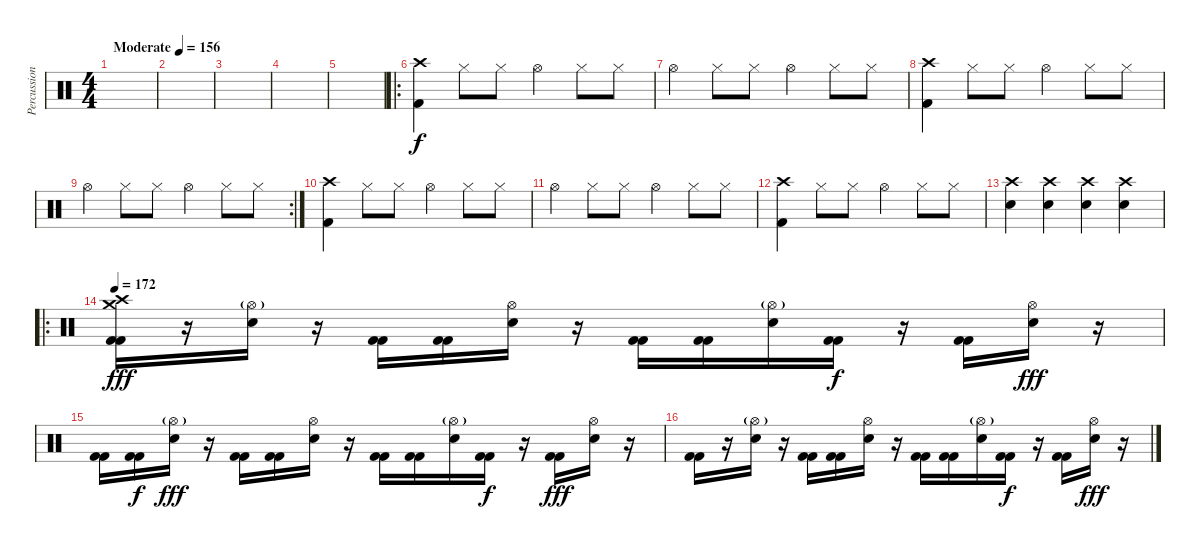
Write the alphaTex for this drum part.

\track ("Percussion" "Percussion") {instrument percussion}
\staff {score}
\articulation defaults
\ts (4 4)
\tempo (156 "Moderate")
\clef neutral
\ks c
|
|
|
|
|
\ro
("Kick (hit) 2" "Crash high (hit)").4 "Hi-Hat (closed)".8 "Hi-Hat (closed)".8 "Hi-Hat (open)".4 "Hi-Hat (closed)".8 "Hi-Hat (closed)".8 |
"Hi-Hat (open)".4 "Hi-Hat (closed)".8 "Hi-Hat (closed)".8 "Hi-Hat (open)".4 "Hi-Hat (closed)".8 "Hi-Hat (closed)".8 |
("Kick (hit) 2" "Crash high (hit)").4 "Hi-Hat (closed)".8 "Hi-Hat (closed)".8 "Hi-Hat (open)".4 "Hi-Hat (closed)".8 "Hi-Hat (closed)".8 |
\rc 2 "Hi-Hat (open)".4 "Hi-Hat (closed)".8 "Hi-Hat (closed)".8 "Hi-Hat (open)".4 "Hi-Hat (closed)".8 "Hi-Hat (closed)".8
|
("Kick (hit) 2" "Crash high (hit)").4 "Hi-Hat (closed)".8 "Hi-Hat (closed)".8 "Hi-Hat (open)".4 "Hi-Hat (closed)".8 "Hi-Hat (closed)".8 |
"Hi-Hat (open)".4 "Hi-Hat (closed)".8 "Hi-Hat (closed)".8 "Hi-Hat (open)".4 "Hi-Hat (closed)".8 "Hi-Hat (closed)".8 |
("Kick (hit) 2" "Crash high (hit)").4 "Hi-Hat (closed)".8 "Hi-Hat (closed)".8 "Hi-Hat (open)".4 "Hi-Hat (closed)".8 "Hi-Hat (closed)".8 |
("Crash high (hit)" "Snare (hit) 2").4 ("Crash high (hit)" "Snare (hit) 2").4 ("Crash high (hit)" "Snare (hit) 2").4 ("Crash high (hit)" "Snare (hit) 2").4 |
\ro
\tempo 172
("Crash medium (hit)" "Crash high (hit)" "Kick (hit) 2" "Kick (hit) 2").16{dy fff} r.16 ("Hi-Hat (open)"{g} "Electric Snare (hit)").16 r.16 ("Kick (hit) 2" "Kick (hit) 2").16 ("Kick (hit) 2" "Kick (hit) 2").16 ("Hi-Hat (open)" "Electric Snare (hit)").16 r.16 ("Kick (hit) 2" "Kick (hit) 2").16 ("Kick (hit) 2" "Kick (hit) 2").16 ("Hi-Hat (open)"{g} "Electric Snare (hit)").16 ("Kick (hit) 2" "Kick (hit) 2").16{dy f} r.16 ("Kick (hit) 2" "Kick (hit) 2").16 ("Hi-Hat (open)" "Electric Snare (hit)").16{dy fff} r.16 |
("Kick (hit) 2" "Kick (hit) 2").16 ("Kick (hit) 2" "Kick (hit) 2").16{dy f} ("Hi-Hat (open)"{g} "Electric Snare (hit)").16{dy fff} r.16 ("Kick (hit) 2" "Kick (hit) 2").16 ("Kick (hit) 2" "Kick (hit) 2").16 ("Hi-Hat (open)" "Electric Snare (hit)").16 r.16 ("Kick (hit) 2" "Kick (hit) 2").16 ("Kick (hit) 2" "Kick (hit) 2").16 ("Hi-Hat (open)"{g} "Electric Snare (hit)").16 ("Kick (hit) 2" "Kick (hit) 2").16{dy f} r.16 ("Kick (hit) 2" "Kick (hit) 2").16{dy fff} ("Hi-Hat (open)" "Electric Snare (hit)").16 r.16 |
("Kick (hit) 2" "Kick (hit) 2").16 r.16 ("Hi-Hat (open)"{g} "Electric Snare (hit)").16 r.16 ("Kick (hit) 2" "Kick (hit) 2").16 ("Kick (hit) 2" "Kick (hit) 2").16 ("Hi-Hat (open)" "Electric Snare (hit)").16 r.16 ("Kick (hit) 2" "Kick (hit) 2").16 ("Kick (hit) 2" "Kick (hit) 2").16 ("Hi-Hat (open)"{g} "Electric Snare (hit)").16 ("Kick (hit) 2" "Kick (hit) 2").16{dy f} r.16 ("Kick (hit) 2" "Kick (hit) 2").16 ("Hi-Hat (open)" "Electric Snare (hit)").16{dy fff} r.16
